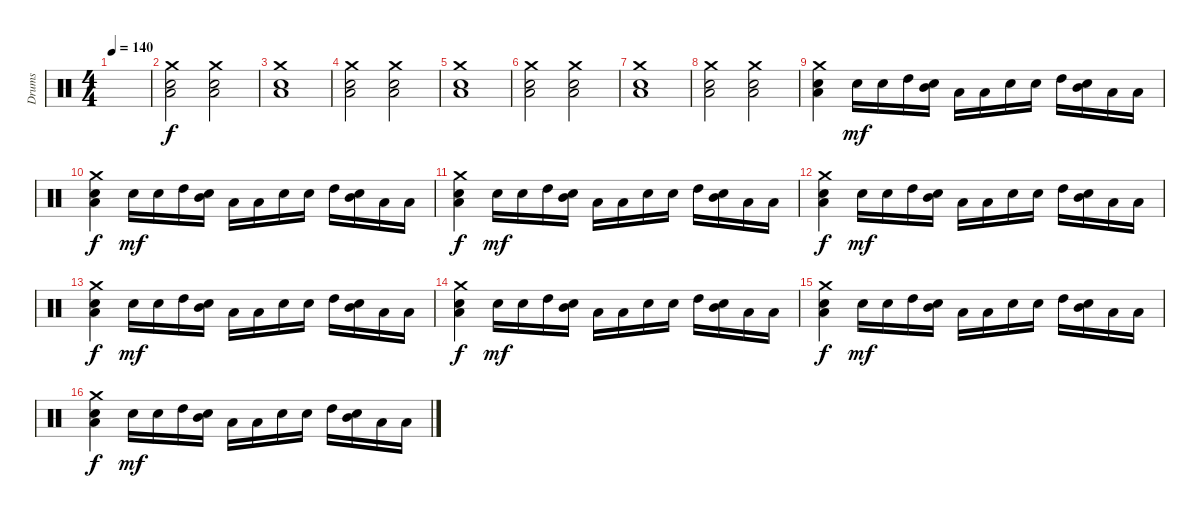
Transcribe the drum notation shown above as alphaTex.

\track ("Drums" "Drums") {instrument percussion}
\staff {score}
\articulation defaults
\ts (4 4)
\tempo 140
\clef neutral
\ks c
|
("Low Floor Tom (hit)" "Snare (hit) 2" "Crash medium (hit)").2 ("Low Floor Tom (hit)" "Snare (hit) 2" "Crash medium (hit)").2 |
("Low Floor Tom (hit)" "Snare (hit) 2" "Crash medium (hit)").1 |
("Low Floor Tom (hit)" "Snare (hit) 2" "Crash medium (hit)").2 ("Low Floor Tom (hit)" "Snare (hit) 2" "Crash medium (hit)").2 |
("Low Floor Tom (hit)" "Snare (hit) 2" "Crash medium (hit)").1 |
("Low Floor Tom (hit)" "Snare (hit) 2" "Crash medium (hit)").2 ("Low Floor Tom (hit)" "Snare (hit) 2" "Crash medium (hit)").2 |
("Low Floor Tom (hit)" "Snare (hit) 2" "Crash medium (hit)").1 |
("Low Floor Tom (hit)" "Snare (hit) 2" "Crash medium (hit)").2 ("Low Floor Tom (hit)" "Snare (hit) 2" "Crash medium (hit)").2 |
("Low Floor Tom (hit)" "Snare (hit) 2" "Crash medium (hit)").4 "Snare (hit) 2".16{dy mf} "Snare (hit) 2".16 "High Tom (hit)".16 ("Mid Tom (hit)" "Snare (hit) 2").16 "Low Tom (hit)".16 "Low Floor Tom (hit)".16 "Snare (hit) 2".16 "Snare (hit) 2".16 "High Tom (hit)".16 ("Mid Tom (hit)" "Snare (hit) 2").16 "Low Tom (hit)".16 "Low Floor Tom (hit)".16 |
("Low Floor Tom (hit)" "Snare (hit) 2" "Crash medium (hit)").4{dy f} "Snare (hit) 2".16{dy mf} "Snare (hit) 2".16 "High Tom (hit)".16 ("Mid Tom (hit)" "Snare (hit) 2").16 "Low Tom (hit)".16 "Low Floor Tom (hit)".16 "Snare (hit) 2".16 "Snare (hit) 2".16 "High Tom (hit)".16 ("Mid Tom (hit)" "Snare (hit) 2").16 "Low Tom (hit)".16 "Low Floor Tom (hit)".16 |
("Low Floor Tom (hit)" "Snare (hit) 2" "Crash medium (hit)").4{dy f} "Snare (hit) 2".16{dy mf} "Snare (hit) 2".16 "High Tom (hit)".16 ("Mid Tom (hit)" "Snare (hit) 2").16 "Low Tom (hit)".16 "Low Floor Tom (hit)".16 "Snare (hit) 2".16 "Snare (hit) 2".16 "High Tom (hit)".16 ("Mid Tom (hit)" "Snare (hit) 2").16 "Low Tom (hit)".16 "Low Floor Tom (hit)".16 |
("Low Floor Tom (hit)" "Snare (hit) 2" "Crash medium (hit)").4{dy f} "Snare (hit) 2".16{dy mf} "Snare (hit) 2".16 "High Tom (hit)".16 ("Mid Tom (hit)" "Snare (hit) 2").16 "Low Tom (hit)".16 "Low Floor Tom (hit)".16 "Snare (hit) 2".16 "Snare (hit) 2".16 "High Tom (hit)".16 ("Mid Tom (hit)" "Snare (hit) 2").16 "Low Tom (hit)".16 "Low Floor Tom (hit)".16 |
("Low Floor Tom (hit)" "Snare (hit) 2" "Crash medium (hit)").4{dy f} "Snare (hit) 2".16{dy mf} "Snare (hit) 2".16 "High Tom (hit)".16 ("Mid Tom (hit)" "Snare (hit) 2").16 "Low Tom (hit)".16 "Low Floor Tom (hit)".16 "Snare (hit) 2".16 "Snare (hit) 2".16 "High Tom (hit)".16 ("Mid Tom (hit)" "Snare (hit) 2").16 "Low Tom (hit)".16 "Low Floor Tom (hit)".16 |
("Low Floor Tom (hit)" "Snare (hit) 2" "Crash medium (hit)").4{dy f} "Snare (hit) 2".16{dy mf} "Snare (hit) 2".16 "High Tom (hit)".16 ("Mid Tom (hit)" "Snare (hit) 2").16 "Low Tom (hit)".16 "Low Floor Tom (hit)".16 "Snare (hit) 2".16 "Snare (hit) 2".16 "High Tom (hit)".16 ("Mid Tom (hit)" "Snare (hit) 2").16 "Low Tom (hit)".16 "Low Floor Tom (hit)".16 |
("Low Floor Tom (hit)" "Snare (hit) 2" "Crash medium (hit)").4{dy f} "Snare (hit) 2".16{dy mf} "Snare (hit) 2".16 "High Tom (hit)".16 ("Mid Tom (hit)" "Snare (hit) 2").16 "Low Tom (hit)".16 "Low Floor Tom (hit)".16 "Snare (hit) 2".16 "Snare (hit) 2".16 "High Tom (hit)".16 ("Mid Tom (hit)" "Snare (hit) 2").16 "Low Tom (hit)".16 "Low Floor Tom (hit)".16 |
("Low Floor Tom (hit)" "Snare (hit) 2" "Crash medium (hit)").4{dy f} "Snare (hit) 2".16{dy mf} "Snare (hit) 2".16 "High Tom (hit)".16 ("Mid Tom (hit)" "Snare (hit) 2").16 "Low Tom (hit)".16 "Low Floor Tom (hit)".16 "Snare (hit) 2".16 "Snare (hit) 2".16 "High Tom (hit)".16 ("Mid Tom (hit)" "Snare (hit) 2").16 "Low Tom (hit)".16 "Low Floor Tom (hit)".16
